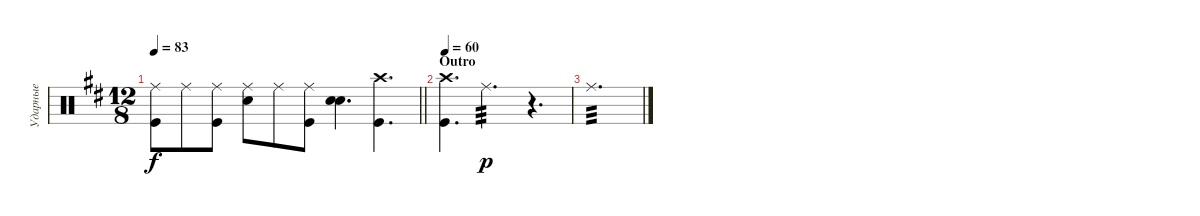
\track ("Ударные" "Ударные") {instrument percussion}
\staff {score}
\articulation defaults
\ts (12 8)
\tempo 83
\clef neutral
\barLineRight lightlight
\ks bminor
("Kick (hit)" "Ride (middle)").8{dy f} "Ride (middle)".8 ("Ride (middle)" "Kick (hit)").8 ("Ride (middle)" "Snare (hit) 2").8 "Ride (middle)".8 ("Ride (middle)" "Kick (hit)").8 ("Snare (hit) 2" "Snare (hit) 2").4{d bd 240} ("Kick (hit)" "Crash high (hit)").4{d} |
\section ("" "Outro")
\tempo 60
("Kick (hit)" "Crash high (hit)").4{d} "Ride (middle)".2{d tp 3 dy p} r.4{d} |
"Ride (middle)".1{d tp 3 volume 0}
